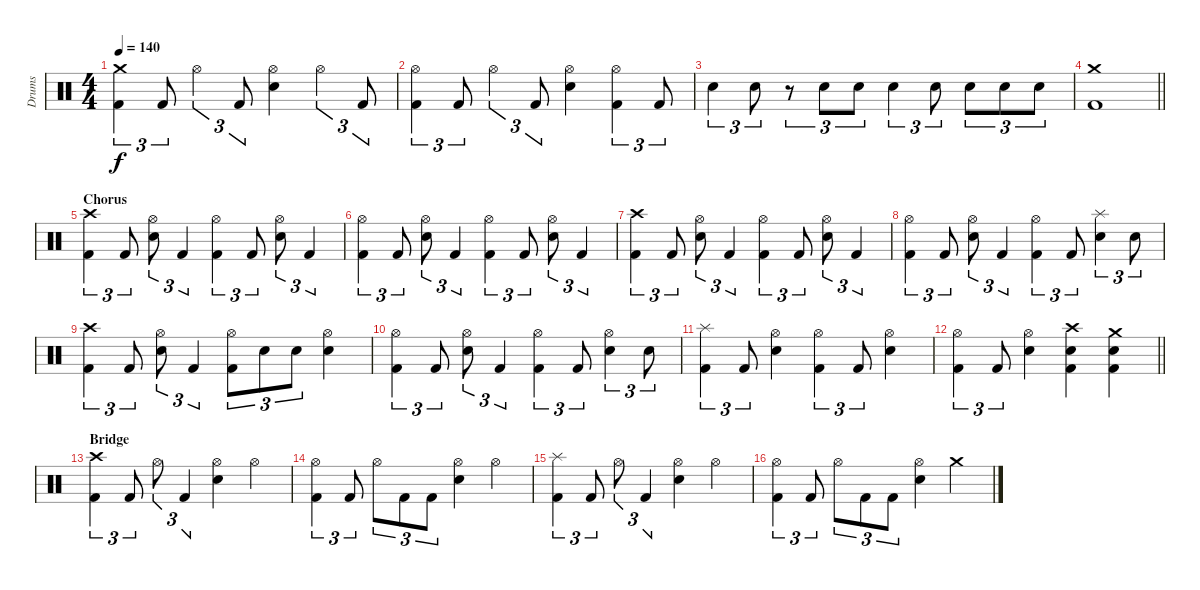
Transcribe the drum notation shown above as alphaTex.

\track ("Drums" "Drums") {instrument percussion}
\staff {score}
\articulation defaults
\ts (4 4)
\tempo 140
\clef neutral
\ks c
("Crash medium (hit)" "Kick (hit) 2").4{tu (3 2) dy f} "Kick (hit) 2".8{tu (3 2)} "Hi-Hat (open)".4{tu (3 2)} "Kick (hit) 2".8{tu (3 2)} ("Hi-Hat (open)" "Electric Snare (hit)").4 "Hi-Hat (open)".4{tu (3 2)} "Kick (hit) 2".8{tu (3 2)} |
("Hi-Hat (open)" "Kick (hit) 2").4{tu (3 2)} "Kick (hit) 2".8{tu (3 2)} "Hi-Hat (open)".4{tu (3 2)} "Kick (hit) 2".8{tu (3 2)} ("Hi-Hat (open)" "Electric Snare (hit)").4 ("Hi-Hat (open)" "Kick (hit) 2").4{tu (3 2)} "Kick (hit) 2".8{tu (3 2)} |
"Electric Snare (hit)".4{tu (3 2)} "Electric Snare (hit)".8{tu (3 2)} r.8{tu (3 2)} "Electric Snare (hit)".8{tu (3 2)} "Electric Snare (hit)".8{tu (3 2)} "Electric Snare (hit)".4{tu (3 2)} "Electric Snare (hit)".8{tu (3 2)} "Electric Snare (hit)".8{tu (3 2)} "Electric Snare (hit)".8{tu (3 2)} "Electric Snare (hit)".8{tu (3 2)} |
\barLineRight lightlight
("Crash medium (hit)" "Kick (hit) 2").1 |
\section ("" "Chorus")
("Crash high (hit)" "Kick (hit) 2").4{tu (3 2)} "Kick (hit) 2".8{tu (3 2)} ("Hi-Hat (open)" "Electric Snare (hit)").8{tu (3 2)} "Kick (hit) 2".4{tu (3 2)} ("Hi-Hat (open)" "Kick (hit) 2").4{tu (3 2)} "Kick (hit) 2".8{tu (3 2)} ("Hi-Hat (open)" "Electric Snare (hit)").8{tu (3 2)} "Kick (hit) 2".4{tu (3 2)} |
("Hi-Hat (open)" "Kick (hit) 2").4{tu (3 2)} "Kick (hit) 2".8{tu (3 2)} ("Hi-Hat (open)" "Electric Snare (hit)").8{tu (3 2)} "Kick (hit) 2".4{tu (3 2)} ("Hi-Hat (open)" "Kick (hit) 2").4{tu (3 2)} "Kick (hit) 2".8{tu (3 2)} ("Hi-Hat (open)" "Electric Snare (hit)").8{tu (3 2)} "Kick (hit) 2".4{tu (3 2)} |
("Crash high (hit)" "Kick (hit) 2").4{tu (3 2)} "Kick (hit) 2".8{tu (3 2)} ("Hi-Hat (open)" "Electric Snare (hit)").8{tu (3 2)} "Kick (hit) 2".4{tu (3 2)} ("Hi-Hat (open)" "Kick (hit) 2").4{tu (3 2)} "Kick (hit) 2".8{tu (3 2)} ("Hi-Hat (open)" "Electric Snare (hit)").8{tu (3 2)} "Kick (hit) 2".4{tu (3 2)} |
("Hi-Hat (open)" "Kick (hit) 2").4{tu (3 2)} "Kick (hit) 2".8{tu (3 2)} ("Hi-Hat (open)" "Electric Snare (hit)").8{tu (3 2)} "Kick (hit) 2".4{tu (3 2)} ("Hi-Hat (open)" "Kick (hit) 2").4{tu (3 2)} "Kick (hit) 2".8{tu (3 2)} ("Splash (hit)" "Electric Snare (hit)").4{tu (3 2)} "Electric Snare (hit)".8{tu (3 2)} |
("Crash high (hit)" "Kick (hit) 2").4{tu (3 2)} "Kick (hit) 2".8{tu (3 2)} ("Hi-Hat (open)" "Electric Snare (hit)").8{tu (3 2)} "Kick (hit) 2".4{tu (3 2)} ("Hi-Hat (open)" "Kick (hit) 2").8{tu (3 2)} "Electric Snare (hit)".8{tu (3 2)} "Electric Snare (hit)".8{tu (3 2)} ("Hi-Hat (open)" "Electric Snare (hit)").4 |
("Hi-Hat (open)" "Kick (hit) 2").4{tu (3 2)} "Kick (hit) 2".8{tu (3 2)} ("Hi-Hat (open)" "Electric Snare (hit)").8{tu (3 2)} "Kick (hit) 2".4{tu (3 2)} ("Hi-Hat (open)" "Kick (hit) 2").4{tu (3 2)} "Kick (hit) 2".8{tu (3 2)} ("Hi-Hat (open)" "Electric Snare (hit)").4{tu (3 2)} "Electric Snare (hit)".8{tu (3 2)} |
("Splash (hit)" "Kick (hit) 2").4{tu (3 2)} "Kick (hit) 2".8{tu (3 2)} ("Hi-Hat (open)" "Electric Snare (hit)").4 ("Hi-Hat (open)" "Kick (hit) 2").4{tu (3 2)} "Kick (hit) 2".8{tu (3 2)} ("Hi-Hat (open)" "Electric Snare (hit)").4 |
\barLineRight lightlight
("Hi-Hat (open)" "Kick (hit) 2").4{tu (3 2)} "Kick (hit) 2".8{tu (3 2)} ("Hi-Hat (open)" "Electric Snare (hit)").4 ("Crash high (hit)" "Electric Snare (hit)" "Kick (hit) 2").4 ("Crash medium (hit)" "Electric Snare (hit)" "Kick (hit) 2").4 |
\section ("" "Bridge")
("Crash high (hit)" "Kick (hit) 2").4{tu (3 2)} "Kick (hit) 2".8{tu (3 2)} "Hi-Hat (open)".8{tu (3 2)} "Kick (hit) 2".4{tu (3 2)} ("Hi-Hat (open)" "Electric Snare (hit)").4 "Hi-Hat (open)".4 |
("Hi-Hat (open)" "Kick (hit) 2").4{tu (3 2)} "Kick (hit) 2".8{tu (3 2)} "Hi-Hat (open)".8{tu (3 2)} "Kick (hit) 2".8{tu (3 2)} "Kick (hit) 2".8{tu (3 2)} ("Hi-Hat (open)" "Electric Snare (hit)").4 "Hi-Hat (open)".4 |
("Splash (hit)" "Kick (hit) 2").4{tu (3 2)} "Kick (hit) 2".8{tu (3 2)} "Hi-Hat (open)".8{tu (3 2)} "Kick (hit) 2".4{tu (3 2)} ("Hi-Hat (open)" "Electric Snare (hit)").4 "Hi-Hat (open)".4 |
("Hi-Hat (open)" "Kick (hit) 2").4{tu (3 2)} "Kick (hit) 2".8{tu (3 2)} "Hi-Hat (open)".8{tu (3 2)} "Kick (hit) 2".8{tu (3 2)} "Kick (hit) 2".8{tu (3 2)} ("Hi-Hat (open)" "Electric Snare (hit)").4 "Crash medium (hit)".4
